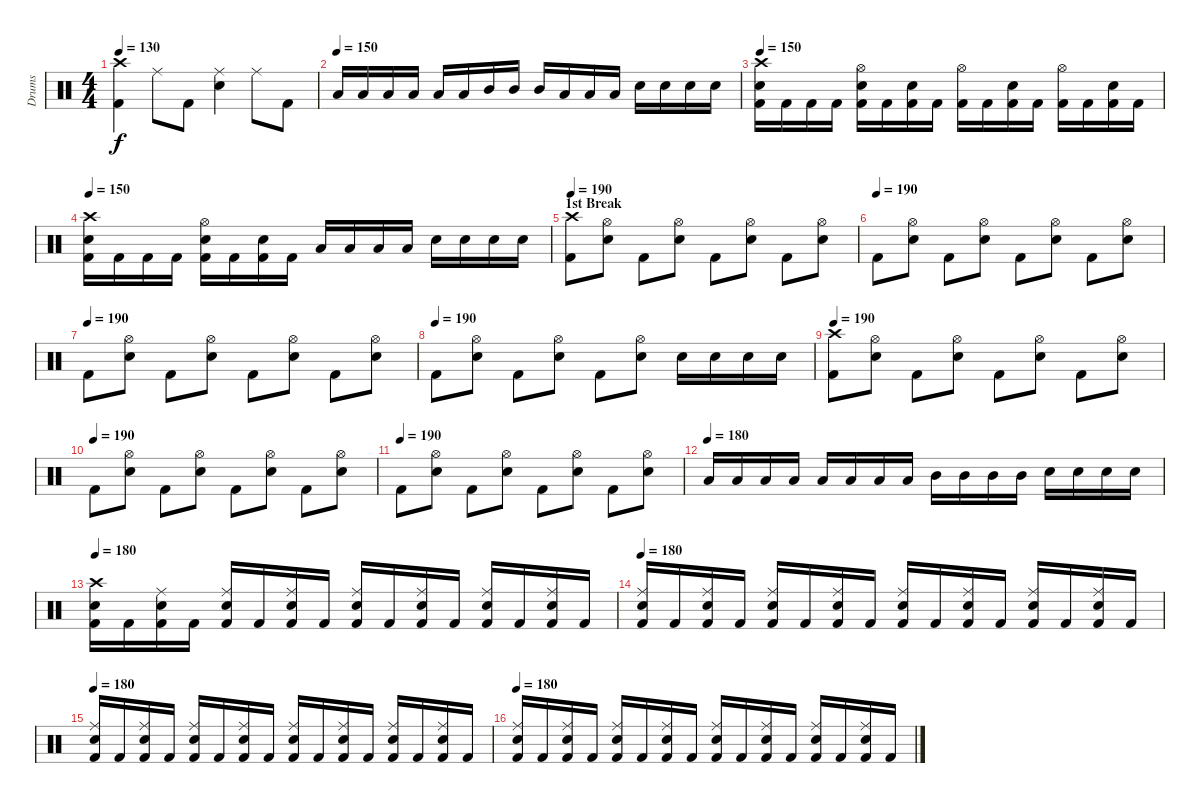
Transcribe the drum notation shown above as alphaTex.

\track ("Drums" "Drums") {instrument percussion}
\staff {score}
\articulation defaults
\ts (4 4)
\tempo 130
\clef neutral
\ks c
("Crash high (hit)" "Kick (hit) 2").4{dy f} "Ride (middle)".8 "Kick (hit) 2".8 ("Ride (middle)" "Snare (hit) 2").4 "Ride (middle)".8 "Kick (hit) 2".8 |
\tempo (150)
"Low Floor Tom (hit)".16 "Low Floor Tom (hit)".16 "Low Floor Tom (hit)".16 "Low Tom (hit)".16 "Low Tom (hit)".16 "Low Tom (hit)".16 "Mid Tom (hit)".16 "Mid Tom (hit)".16 "Mid Tom (hit)".16 "Low Tom (hit)".16 "Low Tom (hit)".16 "Low Tom (hit)".16 "Snare (hit) 2".16 "Snare (hit) 2".16 "Snare (hit) 2".16 "Snare (hit) 2".16 |
\tempo 150
("Crash high (hit)" "Snare (hit) 2" "Kick (hit) 2").16 "Kick (hit) 2".16 "Kick (hit) 2".16 "Kick (hit) 2".16 ("Hi-Hat (open)" "Snare (hit) 2" "Kick (hit) 2").16 "Kick (hit) 2".16 ("Snare (hit) 2" "Kick (hit) 2").16 "Kick (hit) 2".16 ("Hi-Hat (open)" "Kick (hit) 2").16 "Kick (hit) 2".16 ("Snare (hit) 2" "Kick (hit) 2").16 "Kick (hit) 2".16 ("Hi-Hat (open)" "Kick (hit) 2").16 "Kick (hit) 2".16 ("Snare (hit) 2" "Kick (hit) 2").16 "Kick (hit) 2".16 |
\tempo 150
("Crash high (hit)" "Snare (hit) 2" "Kick (hit) 2").16 "Kick (hit) 2".16 "Kick (hit) 2".16 "Kick (hit) 2".16 ("Hi-Hat (open)" "Snare (hit) 2" "Kick (hit) 2").16 "Kick (hit) 2".16 ("Snare (hit) 2" "Kick (hit) 2").16 "Kick (hit) 2".16 "Low Tom (hit)".16 "Low Tom (hit)".16 "Low Tom (hit)".16 "Low Tom (hit)".16 "Snare (hit) 2".16 "Snare (hit) 2".16 "Snare (hit) 2".16 "Snare (hit) 2".16 |
\section ("" "1st Break")
\tempo 190
("Crash high (hit)" "Kick (hit) 2").8 ("Hi-Hat (open)" "Snare (hit) 2").8 "Kick (hit) 2".8 ("Hi-Hat (open)" "Snare (hit) 2").8 "Kick (hit) 2".8 ("Hi-Hat (open)" "Snare (hit) 2").8 "Kick (hit) 2".8 ("Hi-Hat (open)" "Snare (hit) 2").8 |
\tempo (190)
"Kick (hit) 2".8 ("Hi-Hat (open)" "Snare (hit) 2").8 "Kick (hit) 2".8 ("Hi-Hat (open)" "Snare (hit) 2").8 "Kick (hit) 2".8 ("Hi-Hat (open)" "Snare (hit) 2").8 "Kick (hit) 2".8 ("Hi-Hat (open)" "Snare (hit) 2").8 |
\tempo (190)
"Kick (hit) 2".8 ("Hi-Hat (open)" "Snare (hit) 2").8 "Kick (hit) 2".8 ("Hi-Hat (open)" "Snare (hit) 2").8 "Kick (hit) 2".8 ("Hi-Hat (open)" "Snare (hit) 2").8 "Kick (hit) 2".8 ("Hi-Hat (open)" "Snare (hit) 2").8 |
\tempo (190)
"Kick (hit) 2".8 ("Hi-Hat (open)" "Snare (hit) 2").8 "Kick (hit) 2".8 ("Hi-Hat (open)" "Snare (hit) 2").8 "Kick (hit) 2".8 ("Hi-Hat (open)" "Snare (hit) 2").8 "Snare (hit) 2".16 "Snare (hit) 2".16 "Snare (hit) 2".16 "Snare (hit) 2".16 |
\tempo 190
("Crash high (hit)" "Kick (hit) 2").8 ("Hi-Hat (open)" "Snare (hit) 2").8 "Kick (hit) 2".8 ("Hi-Hat (open)" "Snare (hit) 2").8 "Kick (hit) 2".8 ("Hi-Hat (open)" "Snare (hit) 2").8 "Kick (hit) 2".8 ("Hi-Hat (open)" "Snare (hit) 2").8 |
\tempo (190)
"Kick (hit) 2".8 ("Hi-Hat (open)" "Snare (hit) 2").8 "Kick (hit) 2".8 ("Hi-Hat (open)" "Snare (hit) 2").8 "Kick (hit) 2".8 ("Hi-Hat (open)" "Snare (hit) 2").8 "Kick (hit) 2".8 ("Hi-Hat (open)" "Snare (hit) 2").8 |
\tempo (190)
"Kick (hit) 2".8 ("Hi-Hat (open)" "Snare (hit) 2").8 "Kick (hit) 2".8 ("Hi-Hat (open)" "Snare (hit) 2").8 "Kick (hit) 2".8 ("Hi-Hat (open)" "Snare (hit) 2").8 "Kick (hit) 2".8 ("Hi-Hat (open)" "Snare (hit) 2").8 |
\tempo (180)
"Low Floor Tom (hit)".16 "Low Floor Tom (hit)".16 "Low Floor Tom (hit)".16 "Low Floor Tom (hit)".16 "Low Tom (hit)".16 "Low Tom (hit)".16 "Low Tom (hit)".16 "Low Tom (hit)".16 "Mid Tom (hit)".16 "Mid Tom (hit)".16 "Mid Tom (hit)".16 "Mid Tom (hit)".16 "Snare (hit) 2".16 "Snare (hit) 2".16 "Snare (hit) 2".16 "Snare (hit) 2".16 |
\tempo 180
("Crash high (hit)" "Snare (hit) 2" "Kick (hit) 2").16 "Kick (hit) 2".16 ("Ride (middle)" "Snare (hit) 2" "Kick (hit) 2").16 "Kick (hit) 2".16 ("Ride (middle)" "Snare (hit) 2" "Kick (hit) 2").16 "Kick (hit) 2".16 ("Ride (middle)" "Snare (hit) 2" "Kick (hit) 2").16 "Kick (hit) 2".16 ("Ride (middle)" "Snare (hit) 2" "Kick (hit) 2").16 "Kick (hit) 2".16 ("Ride (middle)" "Snare (hit) 2" "Kick (hit) 2").16 "Kick (hit) 2".16 ("Ride (middle)" "Snare (hit) 2" "Kick (hit) 2").16 "Kick (hit) 2".16 ("Ride (middle)" "Snare (hit) 2" "Kick (hit) 2").16 "Kick (hit) 2".16 |
\tempo 180
("Ride (middle)" "Snare (hit) 2" "Kick (hit) 2").16 "Kick (hit) 2".16 ("Ride (middle)" "Snare (hit) 2" "Kick (hit) 2").16 "Kick (hit) 2".16 ("Ride (middle)" "Snare (hit) 2" "Kick (hit) 2").16 "Kick (hit) 2".16 ("Ride (middle)" "Snare (hit) 2" "Kick (hit) 2").16 "Kick (hit) 2".16 ("Ride (middle)" "Snare (hit) 2" "Kick (hit) 2").16 "Kick (hit) 2".16 ("Ride (middle)" "Snare (hit) 2" "Kick (hit) 2").16 "Kick (hit) 2".16 ("Ride (middle)" "Snare (hit) 2" "Kick (hit) 2").16 "Kick (hit) 2".16 ("Ride (middle)" "Snare (hit) 2" "Kick (hit) 2").16 "Kick (hit) 2".16 |
\tempo 180
("Ride (middle)" "Snare (hit) 2" "Kick (hit) 2").16 "Kick (hit) 2".16 ("Ride (middle)" "Snare (hit) 2" "Kick (hit) 2").16 "Kick (hit) 2".16 ("Ride (middle)" "Snare (hit) 2" "Kick (hit) 2").16 "Kick (hit) 2".16 ("Ride (middle)" "Snare (hit) 2" "Kick (hit) 2").16 "Kick (hit) 2".16 ("Ride (middle)" "Snare (hit) 2" "Kick (hit) 2").16 "Kick (hit) 2".16 ("Ride (middle)" "Snare (hit) 2" "Kick (hit) 2").16 "Kick (hit) 2".16 ("Ride (middle)" "Snare (hit) 2" "Kick (hit) 2").16 "Kick (hit) 2".16 ("Ride (middle)" "Snare (hit) 2" "Kick (hit) 2").16 "Kick (hit) 2".16 |
\tempo 180
("Ride (middle)" "Snare (hit) 2" "Kick (hit) 2").16 "Kick (hit) 2".16 ("Ride (middle)" "Snare (hit) 2" "Kick (hit) 2").16 "Kick (hit) 2".16 ("Ride (middle)" "Snare (hit) 2" "Kick (hit) 2").16 "Kick (hit) 2".16 ("Ride (middle)" "Snare (hit) 2" "Kick (hit) 2").16 "Kick (hit) 2".16 ("Ride (middle)" "Snare (hit) 2" "Kick (hit) 2").16 "Kick (hit) 2".16 ("Ride (middle)" "Snare (hit) 2" "Kick (hit) 2").16 "Kick (hit) 2".16 ("Ride (middle)" "Snare (hit) 2" "Kick (hit) 2").16 "Kick (hit) 2".16 ("Ride (middle)" "Snare (hit) 2" "Kick (hit) 2").16 "Kick (hit) 2".16
